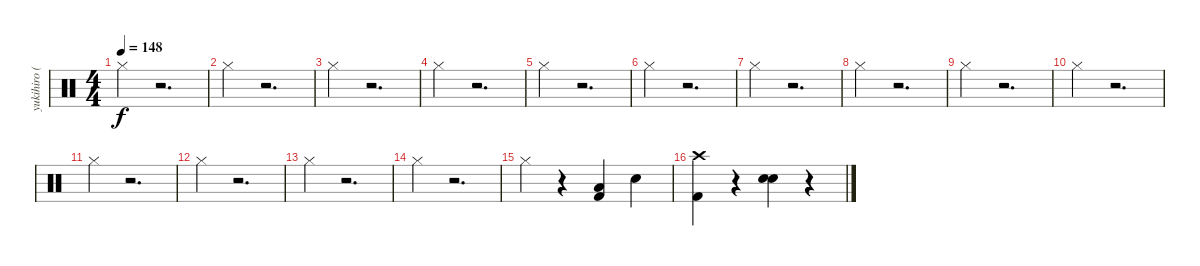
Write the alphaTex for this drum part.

\track ("yukihiro (Drums)" "yukihiro (") {instrument percussion}
\staff {score}
\articulation defaults
\ts (4 4)
\tempo 148
\clef neutral
\ks c "Hi-Hat (closed)".4{dy f}
r.2{d} |
"Hi-Hat (closed)".4 r.2{d} |
"Hi-Hat (closed)".4 r.2{d} |
"Hi-Hat (closed)".4 r.2{d} |
"Hi-Hat (closed)".4 r.2{d} |
"Hi-Hat (closed)".4 r.2{d} |
"Hi-Hat (closed)".4 r.2{d} |
"Hi-Hat (closed)".4 r.2{d} |
"Hi-Hat (closed)".4 r.2{d} |
"Hi-Hat (closed)".4 r.2{d} |
"Hi-Hat (closed)".4 r.2{d} |
"Hi-Hat (closed)".4 r.2{d} |
"Hi-Hat (closed)".4 r.2{d} |
"Hi-Hat (closed)".4 r.2{d} |
"Hi-Hat (closed)".4 r.4 ("Low Tom (hit)" "Kick (hit) 2").4 "Electric Snare (hit)".4 |
("Crash high (hit)" "Kick (hit) 2").4 r.4 ("Electric Snare (hit)" "Electric Snare (hit)").4 r.4
